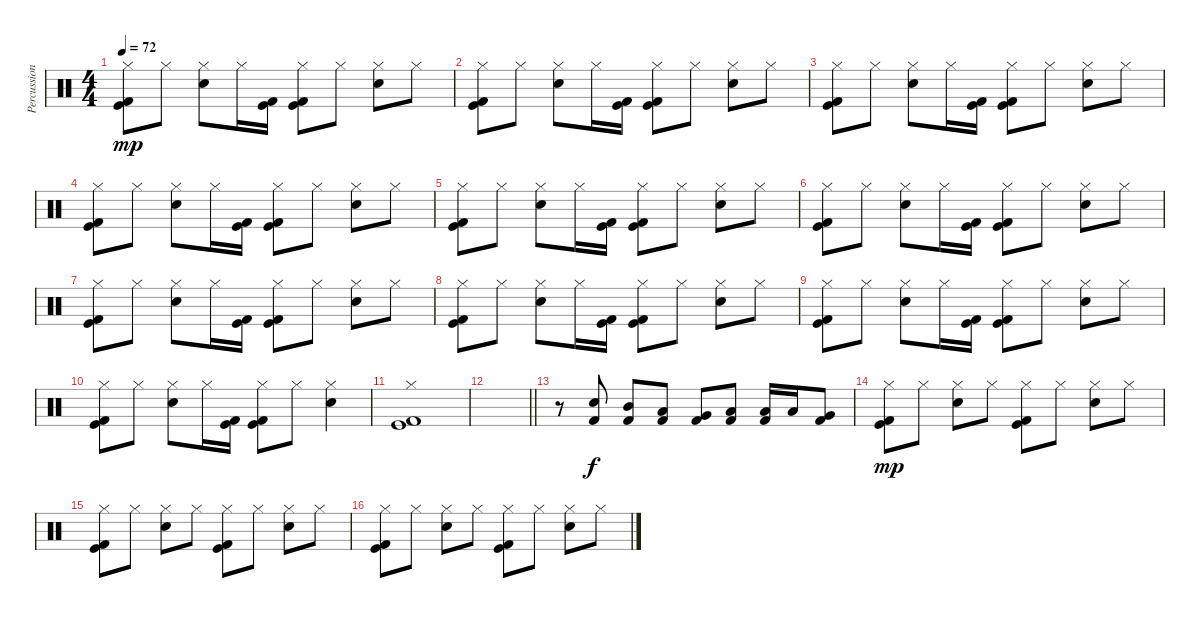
\track ("Percussion" "Percussion") {instrument percussion}
\staff {score}
\articulation defaults
\ts (4 4)
\tempo 72
\clef neutral
\ks c
("Hi-Hat (closed)" "Kick (hit)" "Kick (hit) 2").8{dy mp} "Hi-Hat (closed)".8 ("Hi-Hat (closed)" "Electric Snare (hit)").8 "Hi-Hat (closed)".16 ("Kick (hit)" "Kick (hit) 2").16 ("Hi-Hat (closed)" "Kick (hit)" "Kick (hit) 2").8 "Hi-Hat (closed)".8 ("Hi-Hat (closed)" "Electric Snare (hit)").8 "Hi-Hat (closed)".8 |
("Hi-Hat (closed)" "Kick (hit)" "Kick (hit) 2").8 "Hi-Hat (closed)".8 ("Hi-Hat (closed)" "Electric Snare (hit)").8 "Hi-Hat (closed)".16 ("Kick (hit)" "Kick (hit) 2").16 ("Hi-Hat (closed)" "Kick (hit)" "Kick (hit) 2").8 "Hi-Hat (closed)".8 ("Hi-Hat (closed)" "Electric Snare (hit)").8 "Hi-Hat (closed)".8 |
("Hi-Hat (closed)" "Kick (hit)" "Kick (hit) 2").8 "Hi-Hat (closed)".8 ("Hi-Hat (closed)" "Electric Snare (hit)").8 "Hi-Hat (closed)".16 ("Kick (hit)" "Kick (hit) 2").16 ("Hi-Hat (closed)" "Kick (hit)" "Kick (hit) 2").8 "Hi-Hat (closed)".8 ("Hi-Hat (closed)" "Electric Snare (hit)").8 "Hi-Hat (closed)".8 |
("Hi-Hat (closed)" "Kick (hit)" "Kick (hit) 2").8 "Hi-Hat (closed)".8 ("Hi-Hat (closed)" "Electric Snare (hit)").8 "Hi-Hat (closed)".16 ("Kick (hit)" "Kick (hit) 2").16 ("Hi-Hat (closed)" "Kick (hit)" "Kick (hit) 2").8 "Hi-Hat (closed)".8 ("Hi-Hat (closed)" "Electric Snare (hit)").8 "Hi-Hat (closed)".8 |
("Hi-Hat (closed)" "Kick (hit)" "Kick (hit) 2").8 "Hi-Hat (closed)".8 ("Hi-Hat (closed)" "Electric Snare (hit)").8 "Hi-Hat (closed)".16 ("Kick (hit)" "Kick (hit) 2").16 ("Hi-Hat (closed)" "Kick (hit)" "Kick (hit) 2").8 "Hi-Hat (closed)".8 ("Hi-Hat (closed)" "Electric Snare (hit)").8 "Hi-Hat (closed)".8 |
("Hi-Hat (closed)" "Kick (hit)" "Kick (hit) 2").8 "Hi-Hat (closed)".8 ("Hi-Hat (closed)" "Electric Snare (hit)").8 "Hi-Hat (closed)".16 ("Kick (hit)" "Kick (hit) 2").16 ("Hi-Hat (closed)" "Kick (hit)" "Kick (hit) 2").8 "Hi-Hat (closed)".8 ("Hi-Hat (closed)" "Electric Snare (hit)").8 "Hi-Hat (closed)".8 |
("Hi-Hat (closed)" "Kick (hit)" "Kick (hit) 2").8 "Hi-Hat (closed)".8 ("Hi-Hat (closed)" "Electric Snare (hit)").8 "Hi-Hat (closed)".16 ("Kick (hit)" "Kick (hit) 2").16 ("Hi-Hat (closed)" "Kick (hit)" "Kick (hit) 2").8 "Hi-Hat (closed)".8 ("Hi-Hat (closed)" "Electric Snare (hit)").8 "Hi-Hat (closed)".8 |
("Hi-Hat (closed)" "Kick (hit)" "Kick (hit) 2").8 "Hi-Hat (closed)".8 ("Hi-Hat (closed)" "Electric Snare (hit)").8 "Hi-Hat (closed)".16 ("Kick (hit)" "Kick (hit) 2").16 ("Hi-Hat (closed)" "Kick (hit)" "Kick (hit) 2").8 "Hi-Hat (closed)".8 ("Hi-Hat (closed)" "Electric Snare (hit)").8 "Hi-Hat (closed)".8 |
("Hi-Hat (closed)" "Kick (hit)" "Kick (hit) 2").8 "Hi-Hat (closed)".8 ("Hi-Hat (closed)" "Electric Snare (hit)").8 "Hi-Hat (closed)".16 ("Kick (hit)" "Kick (hit) 2").16 ("Hi-Hat (closed)" "Kick (hit)" "Kick (hit) 2").8 "Hi-Hat (closed)".8 ("Hi-Hat (closed)" "Electric Snare (hit)").8 "Hi-Hat (closed)".8 |
("Hi-Hat (closed)" "Kick (hit)" "Kick (hit) 2").8 "Hi-Hat (closed)".8 ("Hi-Hat (closed)" "Electric Snare (hit)").8 "Hi-Hat (closed)".16 ("Kick (hit)" "Kick (hit) 2").16 ("Hi-Hat (closed)" "Kick (hit)" "Kick (hit) 2").8 "Hi-Hat (closed)".8 ("Hi-Hat (closed)" "Electric Snare (hit)").4 |
("Hi-Hat (closed)" "Kick (hit)" "Kick (hit) 2").1 |
\barLineRight lightlight
|
\section ("" "")
r.8 ("Electric Snare (hit)" "Kick (hit) 2").8{dy f} ("Kick (hit) 2" "Mid Tom (hit)").8 ("Kick (hit) 2" "Low Tom (hit)").8 ("Kick (hit) 2" "Very Low Tom (hit)").8 ("Kick (hit) 2" "Low Floor Tom (hit)").8 ("Kick (hit) 2" "Low Tom (hit)").16 "Low Tom (hit)".16 ("Kick (hit) 2" "Very Low Tom (hit)").8 |
("Hi-Hat (closed)" "Kick (hit)" "Kick (hit) 2").8{dy mp} "Hi-Hat (closed)".8 ("Hi-Hat (closed)" "Electric Snare (hit)").8 "Hi-Hat (closed)".8 ("Hi-Hat (closed)" "Kick (hit)" "Kick (hit) 2").8 "Hi-Hat (closed)".8 ("Hi-Hat (closed)" "Electric Snare (hit)").8 "Hi-Hat (closed)".8 |
("Hi-Hat (closed)" "Kick (hit)" "Kick (hit) 2").8 "Hi-Hat (closed)".8 ("Hi-Hat (closed)" "Electric Snare (hit)").8 "Hi-Hat (closed)".8 ("Hi-Hat (closed)" "Kick (hit)" "Kick (hit) 2").8 "Hi-Hat (closed)".8 ("Hi-Hat (closed)" "Electric Snare (hit)").8 "Hi-Hat (closed)".8 |
("Hi-Hat (closed)" "Kick (hit)" "Kick (hit) 2").8 "Hi-Hat (closed)".8 ("Hi-Hat (closed)" "Electric Snare (hit)").8 "Hi-Hat (closed)".8 ("Hi-Hat (closed)" "Kick (hit)" "Kick (hit) 2").8 "Hi-Hat (closed)".8 ("Hi-Hat (closed)" "Electric Snare (hit)").8 "Hi-Hat (closed)".8
